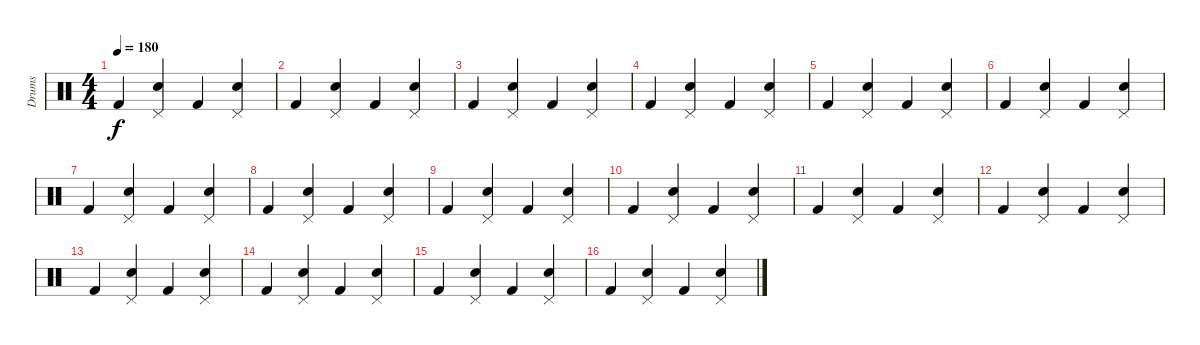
\track ("Drums" "Drums") {instrument percussion}
\staff {score}
\articulation defaults
\ts (4 4)
\tempo 180
\clef neutral
\ks c "Kick (hit) 2".4{dy f}
("Pedal Hi-Hat (hit)" "Electric Snare (hit)").4 "Kick (hit) 2".4 ("Pedal Hi-Hat (hit)" "Electric Snare (hit)").4 |
"Kick (hit) 2".4 ("Pedal Hi-Hat (hit)" "Electric Snare (hit)").4 "Kick (hit) 2".4 ("Pedal Hi-Hat (hit)" "Electric Snare (hit)").4 |
"Kick (hit) 2".4 ("Pedal Hi-Hat (hit)" "Electric Snare (hit)").4 "Kick (hit) 2".4 ("Pedal Hi-Hat (hit)" "Electric Snare (hit)").4 |
"Kick (hit) 2".4 ("Pedal Hi-Hat (hit)" "Electric Snare (hit)").4 "Kick (hit) 2".4 ("Pedal Hi-Hat (hit)" "Electric Snare (hit)").4 |
"Kick (hit) 2".4 ("Pedal Hi-Hat (hit)" "Electric Snare (hit)").4 "Kick (hit) 2".4 ("Pedal Hi-Hat (hit)" "Electric Snare (hit)").4 |
"Kick (hit) 2".4 ("Pedal Hi-Hat (hit)" "Electric Snare (hit)").4 "Kick (hit) 2".4 ("Pedal Hi-Hat (hit)" "Electric Snare (hit)").4 |
"Kick (hit) 2".4 ("Pedal Hi-Hat (hit)" "Electric Snare (hit)").4 "Kick (hit) 2".4 ("Pedal Hi-Hat (hit)" "Electric Snare (hit)").4 |
"Kick (hit) 2".4 ("Pedal Hi-Hat (hit)" "Electric Snare (hit)").4 "Kick (hit) 2".4 ("Pedal Hi-Hat (hit)" "Electric Snare (hit)").4 |
"Kick (hit) 2".4 ("Pedal Hi-Hat (hit)" "Electric Snare (hit)").4 "Kick (hit) 2".4 ("Pedal Hi-Hat (hit)" "Electric Snare (hit)").4 |
"Kick (hit) 2".4 ("Pedal Hi-Hat (hit)" "Electric Snare (hit)").4 "Kick (hit) 2".4 ("Pedal Hi-Hat (hit)" "Electric Snare (hit)").4 |
"Kick (hit) 2".4 ("Pedal Hi-Hat (hit)" "Electric Snare (hit)").4 "Kick (hit) 2".4 ("Pedal Hi-Hat (hit)" "Electric Snare (hit)").4 |
"Kick (hit) 2".4 ("Pedal Hi-Hat (hit)" "Electric Snare (hit)").4 "Kick (hit) 2".4 ("Pedal Hi-Hat (hit)" "Electric Snare (hit)").4 |
"Kick (hit) 2".4 ("Pedal Hi-Hat (hit)" "Electric Snare (hit)").4 "Kick (hit) 2".4 ("Pedal Hi-Hat (hit)" "Electric Snare (hit)").4 |
"Kick (hit) 2".4 ("Pedal Hi-Hat (hit)" "Electric Snare (hit)").4 "Kick (hit) 2".4 ("Pedal Hi-Hat (hit)" "Electric Snare (hit)").4 |
"Kick (hit) 2".4 ("Pedal Hi-Hat (hit)" "Electric Snare (hit)").4 "Kick (hit) 2".4 ("Pedal Hi-Hat (hit)" "Electric Snare (hit)").4 |
"Kick (hit) 2".4 ("Pedal Hi-Hat (hit)" "Electric Snare (hit)").4 "Kick (hit) 2".4 ("Pedal Hi-Hat (hit)" "Electric Snare (hit)").4
